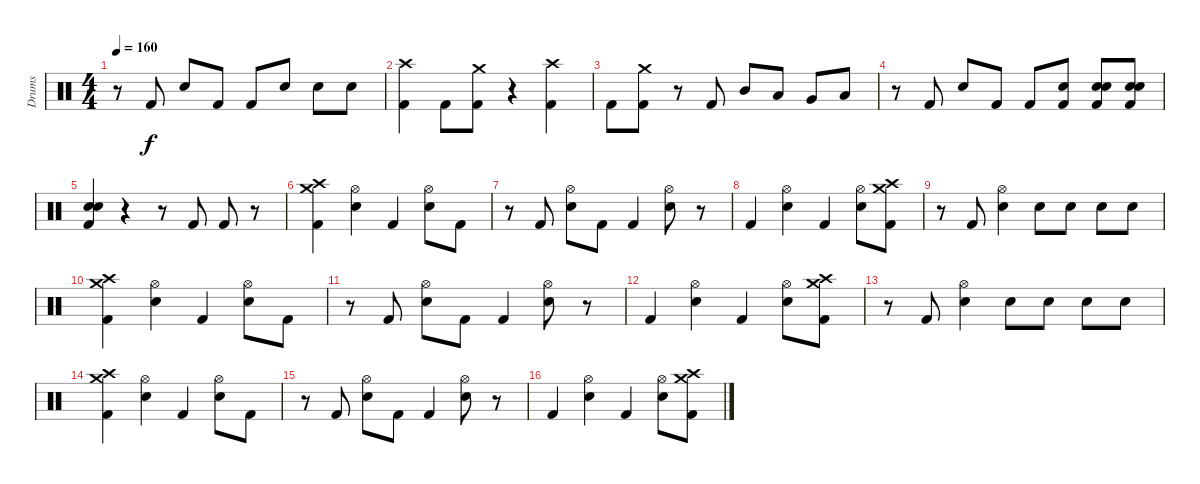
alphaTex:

\track ("Drums" "Drums") {instrument percussion}
\staff {score}
\articulation defaults
\ts (4 4)
\tempo 160
\clef neutral
\ks c
r.8{dy f} "Kick (hit) 2".8 "Snare (hit) 2".8 "Kick (hit) 2".8 "Kick (hit) 2".8 "Snare (hit) 2".8 "Snare (hit) 2".8 "Snare (hit) 2".8 |
("Crash high (hit)" "Kick (hit) 2").4 "Kick (hit) 2".8 ("Crash medium (hit)" "Kick (hit) 2").8 r.4 ("Crash high (hit)" "Kick (hit) 2").4 |
"Kick (hit) 2".8 ("Crash medium (hit)" "Kick (hit) 2").8 r.8 "Kick (hit) 2".8 "Mid Tom (hit)".8 "Low Tom (hit)".8 "Very Low Tom (hit)".8 "Low Floor Tom (hit)".8 |
r.8 "Kick (hit) 2".8 "Snare (hit) 2".8 "Kick (hit) 2".8 "Kick (hit) 2".8 ("Snare (hit) 2" "Kick (hit) 2").8 ("Electric Snare (hit)" "Snare (hit) 2" "Kick (hit) 2").8 ("Electric Snare (hit)" "Snare (hit) 2" "Kick (hit) 2").8 |
("Electric Snare (hit)" "Snare (hit) 2" "Kick (hit) 2").4 r.4 r.8 "Kick (hit) 2".8 "Kick (hit) 2".8 r.8 |
("Crash medium (hit)" "Crash high (hit)" "Kick (hit) 2").4 ("Hi-Hat (open)" "Snare (hit) 2").4 "Kick (hit) 2".4 ("Hi-Hat (open)" "Snare (hit) 2").8 "Kick (hit) 2".8 |
r.8 "Kick (hit) 2".8 ("Hi-Hat (open)" "Snare (hit) 2").8 "Kick (hit) 2".8 "Kick (hit) 2".4 ("Hi-Hat (open)" "Snare (hit) 2").8 r.8 |
"Kick (hit) 2".4 ("Hi-Hat (open)" "Snare (hit) 2").4 "Kick (hit) 2".4 ("Hi-Hat (open)" "Snare (hit) 2").8 ("Crash medium (hit)" "Crash high (hit)" "Kick (hit) 2").8 |
r.8 "Kick (hit) 2".8 ("Hi-Hat (open)" "Snare (hit) 2").4 "Snare (hit) 2".8 "Snare (hit) 2".8 "Snare (hit) 2".8 "Snare (hit) 2".8 |
("Crash medium (hit)" "Crash high (hit)" "Kick (hit) 2").4 ("Hi-Hat (open)" "Snare (hit) 2").4 "Kick (hit) 2".4 ("Hi-Hat (open)" "Snare (hit) 2").8 "Kick (hit) 2".8 |
r.8 "Kick (hit) 2".8 ("Hi-Hat (open)" "Snare (hit) 2").8 "Kick (hit) 2".8 "Kick (hit) 2".4 ("Hi-Hat (open)" "Snare (hit) 2").8 r.8 |
"Kick (hit) 2".4 ("Hi-Hat (open)" "Snare (hit) 2").4 "Kick (hit) 2".4 ("Hi-Hat (open)" "Snare (hit) 2").8 ("Crash medium (hit)" "Crash high (hit)" "Kick (hit) 2").8 |
r.8 "Kick (hit) 2".8 ("Hi-Hat (open)" "Snare (hit) 2").4 "Snare (hit) 2".8 "Snare (hit) 2".8 "Snare (hit) 2".8 "Snare (hit) 2".8 |
("Crash medium (hit)" "Crash high (hit)" "Kick (hit) 2").4 ("Hi-Hat (open)" "Snare (hit) 2").4 "Kick (hit) 2".4 ("Hi-Hat (open)" "Snare (hit) 2").8 "Kick (hit) 2".8 |
r.8 "Kick (hit) 2".8 ("Hi-Hat (open)" "Snare (hit) 2").8 "Kick (hit) 2".8 "Kick (hit) 2".4 ("Hi-Hat (open)" "Snare (hit) 2").8 r.8 |
"Kick (hit) 2".4 ("Hi-Hat (open)" "Snare (hit) 2").4 "Kick (hit) 2".4 ("Hi-Hat (open)" "Snare (hit) 2").8 ("Crash medium (hit)" "Crash high (hit)" "Kick (hit) 2").8
